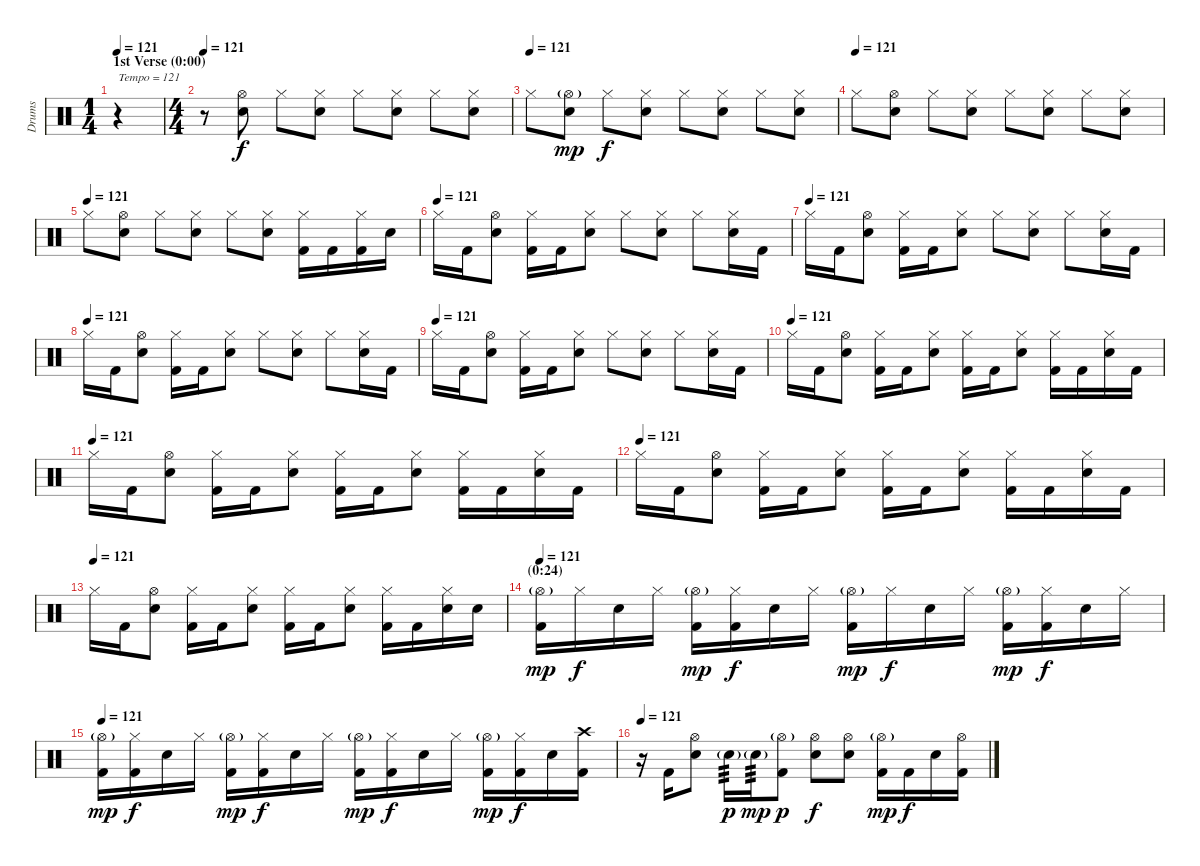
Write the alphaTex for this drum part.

\track ("Drums" "Drums") {instrument percussion}
\staff {score}
\articulation defaults
\ts (1 4)
\section ("" "1st Verse (0:00)")
\tempo 121
\clef neutral
\ks c
r.4{txt "Tempo = 121" dy f} |
\ts (4 4)
\tempo 121
r.8 ("Hi-Hat (open)" "Snare (hit) 2").8 "Hi-Hat (closed)".8 ("Hi-Hat (closed)" "Snare (hit) 2").8 "Hi-Hat (closed)".8 ("Hi-Hat (closed)" "Snare (hit) 2").8 "Hi-Hat (closed)".8 ("Hi-Hat (closed)" "Snare (hit) 2").8 |
\tempo (121)
"Hi-Hat (closed)".8 ("Hi-Hat (open)"{g} "Snare (hit) 2").8{dy mp} "Hi-Hat (closed)".8{dy f} ("Hi-Hat (closed)" "Snare (hit) 2").8 "Hi-Hat (closed)".8 ("Hi-Hat (closed)" "Snare (hit) 2").8 "Hi-Hat (closed)".8 ("Hi-Hat (closed)" "Snare (hit) 2").8 |
\tempo (121)
"Hi-Hat (closed)".8 ("Hi-Hat (open)" "Snare (hit) 2").8 "Hi-Hat (closed)".8 ("Hi-Hat (closed)" "Snare (hit) 2").8 "Hi-Hat (closed)".8 ("Hi-Hat (closed)" "Snare (hit) 2").8 "Hi-Hat (closed)".8 ("Hi-Hat (closed)" "Snare (hit) 2").8 |
\tempo (121)
"Hi-Hat (closed)".8 ("Hi-Hat (open)" "Snare (hit) 2").8 "Hi-Hat (closed)".8 ("Hi-Hat (closed)" "Snare (hit) 2").8 "Hi-Hat (closed)".8 ("Hi-Hat (closed)" "Snare (hit) 2").8 ("Hi-Hat (closed)" "Kick (hit) 2").16 "Kick (hit) 2".16 ("Hi-Hat (closed)" "Kick (hit) 2").16 "Snare (hit) 2".16 |
\tempo (121)
"Hi-Hat (closed)".16 "Kick (hit) 2".16 ("Hi-Hat (open)" "Snare (hit) 2").8 ("Hi-Hat (closed)" "Kick (hit) 2").16 "Kick (hit) 2".16 ("Hi-Hat (closed)" "Snare (hit) 2").8 "Hi-Hat (closed)".8 ("Hi-Hat (closed)" "Snare (hit) 2").8 "Hi-Hat (closed)".8 ("Hi-Hat (closed)" "Snare (hit) 2").16 "Kick (hit) 2".16 |
\tempo (121)
"Hi-Hat (closed)".16 "Kick (hit) 2".16 ("Hi-Hat (open)" "Snare (hit) 2").8 ("Hi-Hat (closed)" "Kick (hit) 2").16 "Kick (hit) 2".16 ("Hi-Hat (closed)" "Snare (hit) 2").8 "Hi-Hat (closed)".8 ("Hi-Hat (closed)" "Snare (hit) 2").8 "Hi-Hat (closed)".8 ("Hi-Hat (closed)" "Snare (hit) 2").16 "Kick (hit) 2".16 |
\tempo (121)
"Hi-Hat (closed)".16 "Kick (hit) 2".16 ("Hi-Hat (open)" "Snare (hit) 2").8 ("Hi-Hat (closed)" "Kick (hit) 2").16 "Kick (hit) 2".16 ("Hi-Hat (closed)" "Snare (hit) 2").8 "Hi-Hat (closed)".8 ("Hi-Hat (closed)" "Snare (hit) 2").8 "Hi-Hat (closed)".8 ("Hi-Hat (closed)" "Snare (hit) 2").16 "Kick (hit) 2".16 |
\tempo (121)
"Hi-Hat (closed)".16 "Kick (hit) 2".16 ("Hi-Hat (open)" "Snare (hit) 2").8 ("Hi-Hat (closed)" "Kick (hit) 2").16 "Kick (hit) 2".16 ("Hi-Hat (closed)" "Snare (hit) 2").8 "Hi-Hat (closed)".8 ("Hi-Hat (closed)" "Snare (hit) 2").8 "Hi-Hat (closed)".8 ("Hi-Hat (closed)" "Snare (hit) 2").16 "Kick (hit) 2".16 |
\tempo (121)
"Hi-Hat (closed)".16 "Kick (hit) 2".16 ("Hi-Hat (open)" "Snare (hit) 2").8 ("Hi-Hat (closed)" "Kick (hit) 2").16 "Kick (hit) 2".16 ("Hi-Hat (closed)" "Snare (hit) 2").8 ("Hi-Hat (closed)" "Kick (hit) 2").16 "Kick (hit) 2".16 ("Hi-Hat (closed)" "Snare (hit) 2").8 ("Hi-Hat (closed)" "Kick (hit) 2").16 "Kick (hit) 2".16 ("Hi-Hat (closed)" "Snare (hit) 2").16 "Kick (hit) 2".16 |
\tempo (121)
"Hi-Hat (closed)".16 "Kick (hit) 2".16 ("Hi-Hat (open)" "Snare (hit) 2").8 ("Hi-Hat (closed)" "Kick (hit) 2").16 "Kick (hit) 2".16 ("Hi-Hat (closed)" "Snare (hit) 2").8 ("Hi-Hat (closed)" "Kick (hit) 2").16 "Kick (hit) 2".16 ("Hi-Hat (closed)" "Snare (hit) 2").8 ("Hi-Hat (closed)" "Kick (hit) 2").16 "Kick (hit) 2".16 ("Hi-Hat (closed)" "Snare (hit) 2").16 "Kick (hit) 2".16 |
\tempo (121)
"Hi-Hat (closed)".16 "Kick (hit) 2".16 ("Hi-Hat (open)" "Snare (hit) 2").8 ("Hi-Hat (closed)" "Kick (hit) 2").16 "Kick (hit) 2".16 ("Hi-Hat (closed)" "Snare (hit) 2").8 ("Hi-Hat (closed)" "Kick (hit) 2").16 "Kick (hit) 2".16 ("Hi-Hat (closed)" "Snare (hit) 2").8 ("Hi-Hat (closed)" "Kick (hit) 2").16 "Kick (hit) 2".16 ("Hi-Hat (closed)" "Snare (hit) 2").16 "Kick (hit) 2".16 |
\tempo (121)
"Hi-Hat (closed)".16 "Kick (hit) 2".16 ("Hi-Hat (open)" "Snare (hit) 2").8 ("Hi-Hat (closed)" "Kick (hit) 2").16 "Kick (hit) 2".16 ("Hi-Hat (closed)" "Snare (hit) 2").8 ("Hi-Hat (closed)" "Kick (hit) 2").16 "Kick (hit) 2".16 ("Hi-Hat (closed)" "Snare (hit) 2").8 ("Hi-Hat (closed)" "Kick (hit) 2").16 "Kick (hit) 2".16 ("Hi-Hat (closed)" "Snare (hit) 2").16 "Snare (hit) 2".16 |
\section ("" "(0:24)")
\tempo 121
("Hi-Hat (open)"{g} "Kick (hit) 2").16{dy mp} "Hi-Hat (closed)".16{dy f} "Snare (hit) 2".16 "Hi-Hat (closed)".16 ("Hi-Hat (open)"{g} "Kick (hit) 2").16{dy mp} ("Hi-Hat (closed)" "Kick (hit) 2").16{dy f} "Snare (hit) 2".16 "Hi-Hat (closed)".16 ("Hi-Hat (open)"{g} "Kick (hit) 2").16{dy mp} "Hi-Hat (closed)".16{dy f} "Snare (hit) 2".16 "Hi-Hat (closed)".16 ("Hi-Hat (open)"{g} "Kick (hit) 2").16{dy mp} ("Hi-Hat (closed)" "Kick (hit) 2").16{dy f} "Snare (hit) 2".16 "Hi-Hat (closed)".16 |
\tempo 121
("Hi-Hat (open)"{g} "Kick (hit) 2").16{dy mp} ("Hi-Hat (closed)" "Kick (hit) 2").16{dy f} "Snare (hit) 2".16 "Hi-Hat (closed)".16 ("Hi-Hat (open)"{g} "Kick (hit) 2").16{dy mp} ("Hi-Hat (closed)" "Kick (hit) 2").16{dy f} "Snare (hit) 2".16 "Hi-Hat (closed)".16 ("Hi-Hat (open)"{g} "Kick (hit) 2").16{dy mp} ("Hi-Hat (closed)" "Kick (hit) 2").16{dy f} "Snare (hit) 2".16 "Hi-Hat (closed)".16 ("Hi-Hat (open)"{g} "Kick (hit) 2").16{dy mp} ("Hi-Hat (closed)" "Kick (hit) 2").16{dy f} "Snare (hit) 2".16 ("Crash high (hit)" "Kick (hit) 2").16 |
\tempo 121
r.16 "Kick (hit) 2".16 ("Hi-Hat (open)" "Snare (hit) 2").8 "Snare (hit) 2"{g}.16{tp 3 dy p} "Snare (hit) 2"{g}.16{tp 3 dy mp} ("Hi-Hat (open)"{g} "Kick (hit) 2").8{dy p} ("Hi-Hat (open)" "Snare (hit) 2").8{dy f} ("Hi-Hat (open)" "Snare (hit) 2").8 ("Hi-Hat (open)"{g} "Kick (hit) 2").16{dy mp} "Kick (hit) 2".16{dy f} "Snare (hit) 2".16 ("Hi-Hat (open)" "Kick (hit) 2").16
